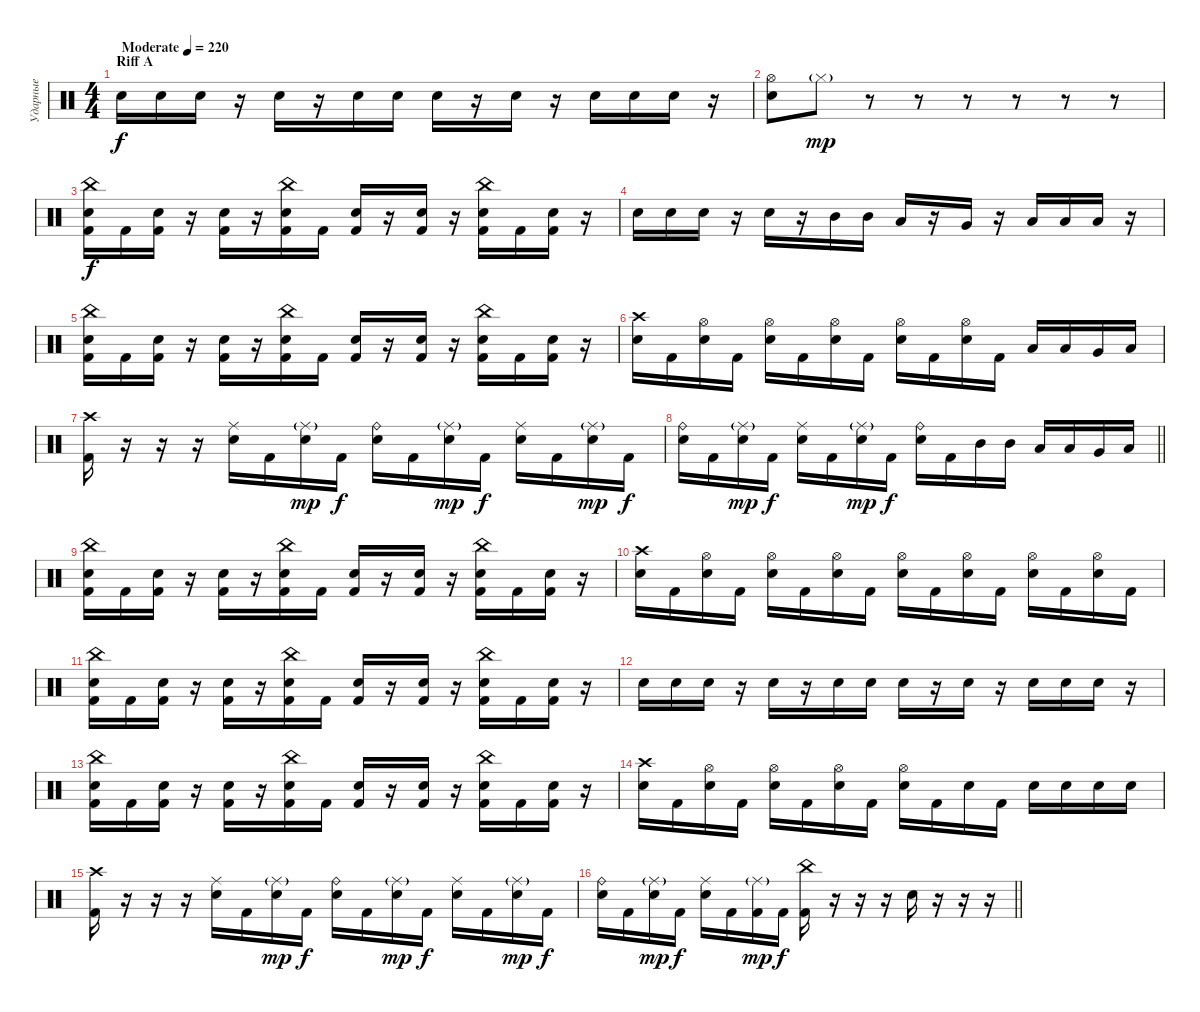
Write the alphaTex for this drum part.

\track ("Ударные" "Ударные") {instrument percussion}
\staff {score}
\articulation defaults
\ts (4 4)
\section ("" "Riff A")
\tempo (220 "Moderate")
\clef neutral
\ks c "Electric Snare (hit)".16{dy f} "Electric Snare (hit)".16 "Electric Snare (hit)".16
r.16 "Electric Snare (hit)".16 r.16 "Electric Snare (hit)".16 "Electric Snare (hit)".16 "Electric Snare (hit)".16 r.16 "Electric Snare (hit)".16 r.16 "Electric Snare (hit)".16 "Electric Snare (hit)".16 "Electric Snare (hit)".16 r.16 |
("Hi-Hat (open)" "Electric Snare (hit)").8 "Hi-Hat (closed)"{g}.8{dy mp} r.8 r.8 r.8 r.8 r.8 r.8 |
("Electric Snare (hit)" "Kick (hit) 2" "China (hit)").16{dy f} "Kick (hit) 2".16 ("Electric Snare (hit)" "Kick (hit) 2").16 r.16 ("Electric Snare (hit)" "Kick (hit) 2").16 r.16 ("Electric Snare (hit)" "Kick (hit) 2" "China (hit)").16 "Kick (hit) 2".16 ("Electric Snare (hit)" "Kick (hit) 2").16 r.16 ("Electric Snare (hit)" "Kick (hit) 2").16 r.16 ("Electric Snare (hit)" "Kick (hit) 2" "China (hit)").16 "Kick (hit) 2".16 ("Electric Snare (hit)" "Kick (hit) 2").16 r.16 |
"Electric Snare (hit)".16 "Electric Snare (hit)".16 "Electric Snare (hit)".16 r.16 "Electric Snare (hit)".16 r.16 "Mid Tom (hit)".16 "Mid Tom (hit)".16 "Low Tom (hit)".16 r.16 "Very Low Tom (hit)".16 r.16 "Low Floor Tom (hit)".16 "Low Floor Tom (hit)".16 "Low Floor Tom (hit)".16 r.16 |
("Electric Snare (hit)" "Kick (hit) 2" "China (hit)").16 "Kick (hit) 2".16 ("Electric Snare (hit)" "Kick (hit) 2").16 r.16 ("Electric Snare (hit)" "Kick (hit) 2").16 r.16 ("Electric Snare (hit)" "Kick (hit) 2" "China (hit)").16 "Kick (hit) 2".16 ("Electric Snare (hit)" "Kick (hit) 2").16 r.16 ("Electric Snare (hit)" "Kick (hit) 2").16 r.16 ("Electric Snare (hit)" "Kick (hit) 2" "China (hit)").16 "Kick (hit) 2".16 ("Electric Snare (hit)" "Kick (hit) 2").16 r.16 |
("Electric Snare (hit)" "Crash high (hit)").16 "Kick (hit) 2".16 ("Electric Snare (hit)" "Hi-Hat (open)").16 "Kick (hit) 2".16 ("Electric Snare (hit)" "Hi-Hat (open)").16 "Kick (hit) 2".16 ("Electric Snare (hit)" "Hi-Hat (open)").16 "Kick (hit) 2".16 ("Electric Snare (hit)" "Hi-Hat (open)").16 "Kick (hit) 2".16 ("Electric Snare (hit)" "Hi-Hat (open)").16 "Kick (hit) 2".16 "Low Tom (hit)".16 "Low Tom (hit)".16 "Very Low Tom (hit)".16 "Low Floor Tom (hit)".16 |
("Kick (hit) 2" "Crash high (hit)").16 r.16 r.16 r.16 ("Electric Snare (hit)" "Ride (middle)").16 "Kick (hit) 2".16 ("Electric Snare (hit)" "Ride (middle)"{g}).16{dy mp} "Kick (hit) 2".16{dy f} ("Electric Snare (hit)" "Ride (bell)").16 "Kick (hit) 2".16 ("Electric Snare (hit)" "Ride (middle)"{g}).16{dy mp} "Kick (hit) 2".16{dy f} ("Electric Snare (hit)" "Ride (middle)").16 "Kick (hit) 2".16 ("Electric Snare (hit)" "Ride (middle)"{g}).16{dy mp} "Kick (hit) 2".16{dy f} |
\barLineRight lightlight
("Electric Snare (hit)" "Ride (bell)").16 "Kick (hit) 2".16 ("Electric Snare (hit)" "Ride (middle)"{g}).16{dy mp} "Kick (hit) 2".16{dy f} ("Electric Snare (hit)" "Ride (middle)").16 "Kick (hit) 2".16 ("Electric Snare (hit)" "Ride (middle)"{g}).16{dy mp} "Kick (hit) 2".16{dy f} ("Electric Snare (hit)" "Ride (bell)").16 "Kick (hit) 2".16 "Mid Tom (hit)".16 "Mid Tom (hit)".16 "Low Tom (hit)".16 "Low Tom (hit)".16 "Very Low Tom (hit)".16 "Low Floor Tom (hit)".16 |
("Electric Snare (hit)" "Kick (hit) 2" "China (hit)").16 "Kick (hit) 2".16 ("Electric Snare (hit)" "Kick (hit) 2").16 r.16 ("Electric Snare (hit)" "Kick (hit) 2").16 r.16 ("Electric Snare (hit)" "Kick (hit) 2" "China (hit)").16 "Kick (hit) 2".16 ("Electric Snare (hit)" "Kick (hit) 2").16 r.16 ("Electric Snare (hit)" "Kick (hit) 2").16 r.16 ("Electric Snare (hit)" "Kick (hit) 2" "China (hit)").16 "Kick (hit) 2".16 ("Electric Snare (hit)" "Kick (hit) 2").16 r.16 |
("Electric Snare (hit)" "Crash high (hit)").16 "Kick (hit) 2".16 ("Electric Snare (hit)" "Hi-Hat (open)").16 "Kick (hit) 2".16 ("Electric Snare (hit)" "Hi-Hat (open)").16 "Kick (hit) 2".16 ("Electric Snare (hit)" "Hi-Hat (open)").16 "Kick (hit) 2".16 ("Electric Snare (hit)" "Hi-Hat (open)").16 "Kick (hit) 2".16 ("Electric Snare (hit)" "Hi-Hat (open)").16 "Kick (hit) 2".16 ("Electric Snare (hit)" "Hi-Hat (open)").16 "Kick (hit) 2".16 ("Electric Snare (hit)" "Hi-Hat (open)").16 "Kick (hit) 2".16 |
("Electric Snare (hit)" "Kick (hit) 2" "China (hit)").16 "Kick (hit) 2".16 ("Electric Snare (hit)" "Kick (hit) 2").16 r.16 ("Electric Snare (hit)" "Kick (hit) 2").16 r.16 ("Electric Snare (hit)" "Kick (hit) 2" "China (hit)").16 "Kick (hit) 2".16 ("Electric Snare (hit)" "Kick (hit) 2").16 r.16 ("Electric Snare (hit)" "Kick (hit) 2").16 r.16 ("Electric Snare (hit)" "Kick (hit) 2" "China (hit)").16 "Kick (hit) 2".16 ("Electric Snare (hit)" "Kick (hit) 2").16 r.16 |
"Electric Snare (hit)".16 "Electric Snare (hit)".16 "Electric Snare (hit)".16 r.16 "Electric Snare (hit)".16 r.16 "Electric Snare (hit)".16 "Electric Snare (hit)".16 "Electric Snare (hit)".16 r.16 "Electric Snare (hit)".16 r.16 "Electric Snare (hit)".16 "Electric Snare (hit)".16 "Electric Snare (hit)".16 r.16 |
("Electric Snare (hit)" "Kick (hit) 2" "China (hit)").16 "Kick (hit) 2".16 ("Electric Snare (hit)" "Kick (hit) 2").16 r.16 ("Electric Snare (hit)" "Kick (hit) 2").16 r.16 ("Electric Snare (hit)" "Kick (hit) 2" "China (hit)").16 "Kick (hit) 2".16 ("Electric Snare (hit)" "Kick (hit) 2").16 r.16 ("Electric Snare (hit)" "Kick (hit) 2").16 r.16 ("Electric Snare (hit)" "Kick (hit) 2" "China (hit)").16 "Kick (hit) 2".16 ("Electric Snare (hit)" "Kick (hit) 2").16 r.16 |
("Electric Snare (hit)" "Crash high (hit)").16 "Kick (hit) 2".16 ("Electric Snare (hit)" "Hi-Hat (open)").16 "Kick (hit) 2".16 ("Electric Snare (hit)" "Hi-Hat (open)").16 "Kick (hit) 2".16 ("Electric Snare (hit)" "Hi-Hat (open)").16 "Kick (hit) 2".16 ("Electric Snare (hit)" "Hi-Hat (open)").16 "Kick (hit) 2".16 "Electric Snare (hit)".16 "Kick (hit) 2".16 "Electric Snare (hit)".16 "Electric Snare (hit)".16 "Electric Snare (hit)".16 "Electric Snare (hit)".16 |
("Kick (hit) 2" "Crash high (hit)").16 r.16 r.16 r.16 ("Electric Snare (hit)" "Ride (middle)").16 "Kick (hit) 2".16 ("Electric Snare (hit)" "Ride (middle)"{g}).16{dy mp} "Kick (hit) 2".16{dy f} ("Electric Snare (hit)" "Ride (bell)").16 "Kick (hit) 2".16 ("Electric Snare (hit)" "Ride (middle)"{g}).16{dy mp} "Kick (hit) 2".16{dy f} ("Electric Snare (hit)" "Ride (middle)").16 "Kick (hit) 2".16 ("Electric Snare (hit)" "Ride (middle)"{g}).16{dy mp} "Kick (hit) 2".16{dy f} |
\barLineRight lightlight
("Electric Snare (hit)" "Ride (bell)").16 "Kick (hit) 2".16 ("Electric Snare (hit)" "Ride (middle)"{g}).16{dy mp} "Kick (hit) 2".16{dy f} ("Electric Snare (hit)" "Ride (middle)").16 "Kick (hit) 2".16 ("Kick (hit) 2" "Ride (middle)"{g}).16{dy mp} "Kick (hit) 2".16{dy f} ("Kick (hit) 2" "China (hit)").16 r.16 r.16 r.16 "Electric Snare (hit)".16 r.16 r.16 r.16
